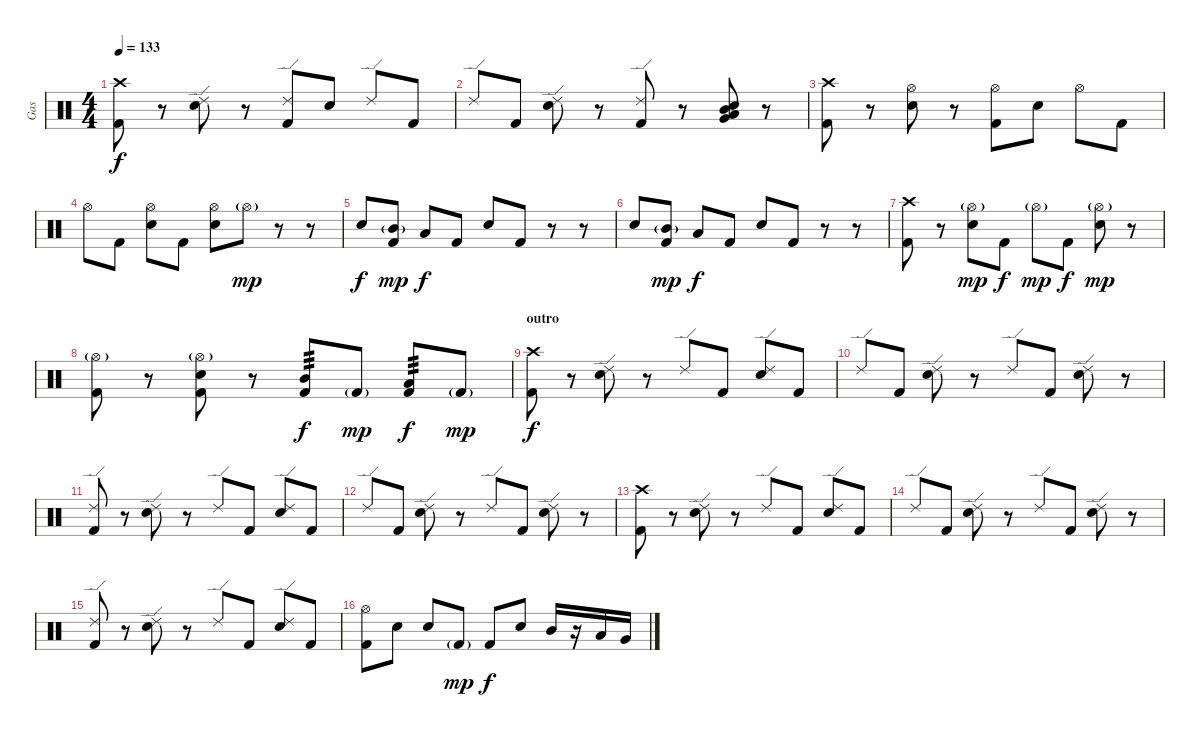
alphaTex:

\track ("Gas" "Gas") {instrument percussion}
\staff {score}
\articulation defaults
\ts (4 4)
\tempo 133
\clef neutral
\ks c
("Crash high (hit)" "Kick (hit) 2").8{dy f} r.8 ("Ride (edge) 2" "Electric Snare (hit)").8 r.8 ("Ride (edge) 2" "Kick (hit) 2").8 "Electric Snare (hit)".8 "Ride (edge) 2".8 "Kick (hit) 2".8 |
"Ride (edge) 2".8 "Kick (hit) 2".8 ("Ride (edge) 2" "Electric Snare (hit)").8 r.8 ("Ride (edge) 2" "Kick (hit) 2").8 r.8 ("Electric Snare (hit)" "Mid Tom (hit)" "Low Floor Tom (hit)" "Very Low Tom (hit)").8 r.8 |
("Crash high (hit)" "Kick (hit) 2").8 r.8 ("Hi-Hat (open)" "Electric Snare (hit)").8 r.8 ("Hi-Hat (open)" "Kick (hit) 2").8 "Electric Snare (hit)".8 "Hi-Hat (open)".8 "Kick (hit) 2".8 |
"Hi-Hat (open)".8 "Kick (hit) 2".8 ("Hi-Hat (open)" "Electric Snare (hit)").8 "Kick (hit) 2".8 ("Hi-Hat (open)" "Electric Snare (hit)").8 "Hi-Hat (open)"{g}.8{dy mp} r.8 r.8 |
"Electric Snare (hit)".8{dy f} ("Kick (hit) 2" "Mid Tom (hit)"{g}).8{dy mp} "Low Tom (hit)".8{dy f} "Kick (hit) 2".8 "Electric Snare (hit)".8 "Kick (hit) 2".8 r.8 r.8 |
"Electric Snare (hit)".8 ("Kick (hit) 2" "Mid Tom (hit)"{g}).8{dy mp} "Low Tom (hit)".8{dy f} "Kick (hit) 2".8 "Electric Snare (hit)".8 "Kick (hit) 2".8 r.8 r.8 |
("Crash high (hit)" "Kick (hit) 2").8 r.8 ("Hi-Hat (open)"{g} "Electric Snare (hit)").8{dy mp} "Kick (hit) 2".8{dy f} "Hi-Hat (open)"{g}.8{dy mp} "Kick (hit) 2".8{dy f} ("Hi-Hat (open)"{g} "Electric Snare (hit)").8{dy mp} r.8 |
("Hi-Hat (open)"{g} "Kick (hit) 2").8 r.8 ("Hi-Hat (open)"{g} "Kick (hit) 2" "Electric Snare (hit)").8 r.8 ("Mid Tom (hit)" "Kick (hit) 2").8{tp 3 dy f} "Kick (hit) 2"{g}.8{dy mp} ("Low Tom (hit)" "Kick (hit) 2").8{tp 3 dy f} "Kick (hit) 2"{g}.8{dy mp} |
\section ("" "outro")
("Crash high (hit)" "Kick (hit) 2").8{dy f} r.8 ("Ride (edge) 2" "Electric Snare (hit)").8 r.8 "Ride (edge) 2".8 "Kick (hit) 2".8 ("Ride (edge) 2" "Electric Snare (hit)").8 "Kick (hit) 2".8 |
"Ride (edge) 2".8 "Kick (hit) 2".8 ("Ride (edge) 2" "Electric Snare (hit)").8 r.8 "Ride (edge) 2".8 "Kick (hit) 2".8 ("Ride (edge) 2" "Electric Snare (hit)").8 r.8 |
("Ride (edge) 2" "Kick (hit) 2").8 r.8 ("Ride (edge) 2" "Electric Snare (hit)").8 r.8 "Ride (edge) 2".8 "Kick (hit) 2".8 ("Ride (edge) 2" "Electric Snare (hit)").8 "Kick (hit) 2".8 |
"Ride (edge) 2".8 "Kick (hit) 2".8 ("Ride (edge) 2" "Electric Snare (hit)").8 r.8 "Ride (edge) 2".8 "Kick (hit) 2".8 ("Ride (edge) 2" "Electric Snare (hit)").8 r.8 |
("Crash high (hit)" "Kick (hit) 2").8 r.8 ("Ride (edge) 2" "Electric Snare (hit)").8 r.8 "Ride (edge) 2".8 "Kick (hit) 2".8 ("Ride (edge) 2" "Electric Snare (hit)").8 "Kick (hit) 2".8 |
"Ride (edge) 2".8 "Kick (hit) 2".8 ("Ride (edge) 2" "Electric Snare (hit)").8 r.8 "Ride (edge) 2".8 "Kick (hit) 2".8 ("Ride (edge) 2" "Electric Snare (hit)").8 r.8 |
("Ride (edge) 2" "Kick (hit) 2").8 r.8 ("Ride (edge) 2" "Electric Snare (hit)").8 r.8 "Ride (edge) 2".8 "Kick (hit) 2".8 ("Ride (edge) 2" "Electric Snare (hit)").8 "Kick (hit) 2".8 |
("Hi-Hat (open)" "Kick (hit) 2").8 "Electric Snare (hit)".8 "Electric Snare (hit)".8 "Kick (hit) 2"{g}.8{dy mp} "Kick (hit) 2".8{dy f} "Electric Snare (hit)".8 "Mid Tom (hit)".16 r.16 "Low Tom (hit)".16 "Very Low Tom (hit)".16
